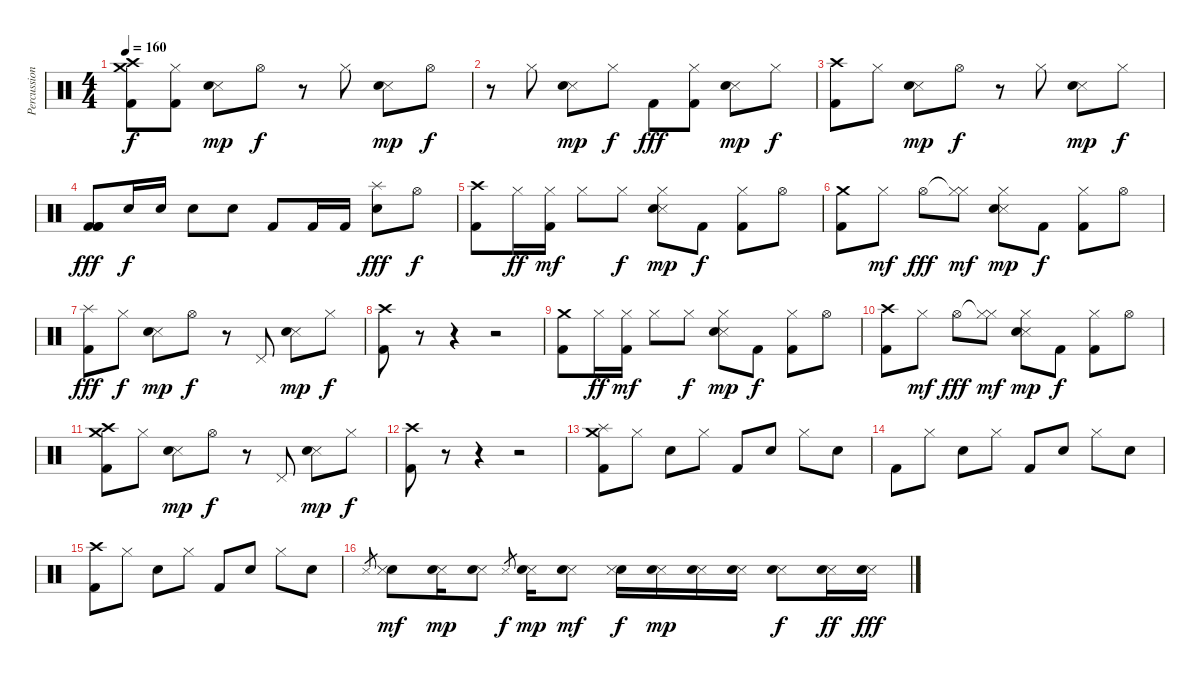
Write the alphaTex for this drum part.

\track ("Percussion" "Percussion") {instrument percussion}
\staff {score}
\articulation defaults
\ts (4 4)
\tempo 160
\clef neutral
\ks c
("Kick (hit) 2" "Crash high (hit)" "Crash medium (hit)").8{dy f} ("Hi-Hat (closed)" "Kick (hit) 2").8 ("Snare (side stick) 3" "Electric Snare (hit)").8{dy mp} "Hi-Hat (open)".8{dy f} r.8 "Hi-Hat (closed)".8 ("Snare (side stick) 3" "Electric Snare (hit)").8{dy mp} "Hi-Hat (open)".8{dy f} |
r.8 "Hi-Hat (closed)".8 ("Snare (side stick) 3" "Electric Snare (hit)").8{dy mp} "Hi-Hat (closed)".8{dy f} "Kick (hit) 2".8{dy fff} ("Hi-Hat (closed)" "Kick (hit) 2").8 ("Snare (side stick) 3" "Electric Snare (hit)").8{dy mp} "Hi-Hat (closed)".8{dy f} |
("Kick (hit) 2" "Crash high (hit)").8 "Hi-Hat (closed)".8 ("Snare (side stick) 3" "Electric Snare (hit)").8{dy mp} "Hi-Hat (open)".8{dy f} r.8 "Hi-Hat (closed)".8 ("Snare (side stick) 3" "Electric Snare (hit)").8{dy mp} "Hi-Hat (closed)".8{dy f} |
("Kick (hit) 2" "Kick (hit) 2" "Kick (hit) 2").8{dy fff} "Electric Snare (hit)".16{dy f} "Electric Snare (hit)".16 "Electric Snare (hit)".8 "Electric Snare (hit)".8 "Kick (hit) 2".8 "Kick (hit) 2".16 "Kick (hit) 2".16 ("Electric Snare (hit)" "Splash (hit)").8{dy fff} "Hi-Hat (open)".8{dy f} |
("Crash high (hit)" "Kick (hit) 2").8 "Hi-Hat (closed)".16{dy ff} ("Hi-Hat (closed)" "Kick (hit) 2").16{dy mf} "Hi-Hat (closed)".8 "Hi-Hat (closed)".8{dy f} ("Hi-Hat (closed)" "Snare (side stick) 3" "Electric Snare (hit)").8{dy mp} "Kick (hit) 2".8{dy f} ("Hi-Hat (closed)" "Kick (hit) 2").8 "Hi-Hat (open)".8 |
("Crash medium (hit)" "Kick (hit) 2").8 "Hi-Hat (closed)".8{dy mf} "Hi-Hat (open)".8{dy fff} ("Hi-Hat (closed)"{t} "Hi-Hat (closed)").8{dy mf} ("Hi-Hat (closed)" "Snare (side stick) 3" "Electric Snare (hit)").8{dy mp} "Kick (hit) 2".8{dy f} ("Hi-Hat (closed)" "Kick (hit) 2").8 "Hi-Hat (open)".8 |
("Splash (hit)" "Kick (hit) 2").8{dy fff} "Hi-Hat (closed)".8{dy f} ("Snare (side stick) 3" "Electric Snare (hit)").8{dy mp} "Hi-Hat (open)".8{dy f} r.8 "Pedal Hi-Hat (hit)".8 ("Snare (side stick) 3" "Electric Snare (hit)").8{dy mp} "Hi-Hat (closed)".8{dy f} |
("Crash high (hit)" "Kick (hit) 2").8 r.8 r.4 r.2 |
("Crash medium (hit)" "Kick (hit) 2").8 "Hi-Hat (closed)".16{dy ff} ("Hi-Hat (closed)" "Kick (hit) 2").16{dy mf} "Hi-Hat (closed)".8 "Hi-Hat (closed)".8{dy f} ("Hi-Hat (closed)" "Snare (side stick) 3" "Electric Snare (hit)").8{dy mp} "Kick (hit) 2".8{dy f} ("Hi-Hat (closed)" "Kick (hit) 2").8 "Hi-Hat (open)".8 |
("Crash high (hit)" "Kick (hit) 2").8 "Hi-Hat (closed)".8{dy mf} "Hi-Hat (open)".8{dy fff} ("Hi-Hat (closed)"{t} "Hi-Hat (closed)").8{dy mf} ("Hi-Hat (closed)" "Snare (side stick) 3" "Electric Snare (hit)").8{dy mp} "Kick (hit) 2".8{dy f} ("Hi-Hat (closed)" "Kick (hit) 2").8 "Hi-Hat (open)".8 |
("Crash high (hit)" "Kick (hit) 2" "Crash medium (hit)").8 "Hi-Hat (closed)".8 ("Snare (side stick) 3" "Electric Snare (hit)").8{dy mp} "Hi-Hat (open)".8{dy f} r.8 "Pedal Hi-Hat (hit)".8 ("Snare (side stick) 3" "Electric Snare (hit)").8{dy mp} "Hi-Hat (closed)".8{dy f} |
("Crash high (hit)" "Kick (hit) 2").8 r.8 r.4 r.2 |
("Kick (hit) 2" "Crash medium (hit)" "Splash (hit)").8 "Hi-Hat (closed)".8 "Electric Snare (hit)".8 "Hi-Hat (closed)".8 "Kick (hit) 2".8 "Electric Snare (hit)".8 "Hi-Hat (closed)".8 "Electric Snare (hit)".8 |
"Kick (hit) 2".8 "Hi-Hat (closed)".8 "Electric Snare (hit)".8 "Hi-Hat (closed)".8 "Kick (hit) 2".8 "Electric Snare (hit)".8 "Hi-Hat (closed)".8 "Electric Snare (hit)".8 |
("Kick (hit) 2" "Crash high (hit)").8 "Hi-Hat (closed)".8 "Electric Snare (hit)".8 "Hi-Hat (closed)".8 "Kick (hit) 2".8 "Electric Snare (hit)".8 "Hi-Hat (closed)".8 "Electric Snare (hit)".8 |
"Snare (side stick) 3".8{gr} ("Electric Snare (hit)" "Snare (side stick) 3").8{dy mf} ("Snare (side stick) 3" "Electric Snare (hit)").16{dy mp} ("Snare (side stick) 3" "Electric Snare (hit)").8 "Snare (side stick) 3".8{gr dy f} ("Snare (side stick) 3" "Electric Snare (hit)").16{dy mp} ("Snare (side stick) 3" "Electric Snare (hit)").8{dy mf} ("Electric Snare (hit)" "Snare (side stick) 3").16{dy f} ("Snare (side stick) 3" "Electric Snare (hit)").16{dy mp} ("Snare (side stick) 3" "Electric Snare (hit)").16 ("Snare (side stick) 3" "Electric Snare (hit)").16 ("Snare (side stick) 3" "Electric Snare (hit)").8{dy f} ("Snare (side stick) 3" "Electric Snare (hit)").16{dy ff} ("Snare (side stick) 3" "Electric Snare (hit)").16{dy fff}
